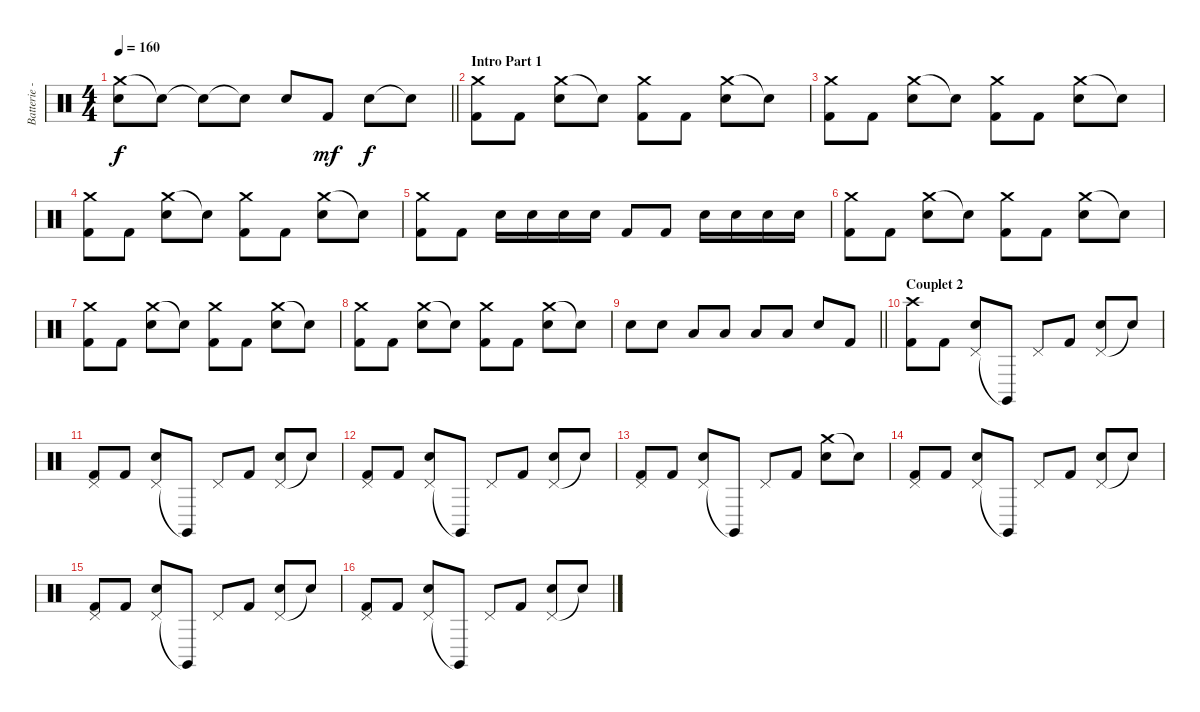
\track ("Batterie - Mikko" "Batterie -") {instrument percussion}
\staff {score}
\articulation defaults
\ts (4 4)
\tempo 160
\clef neutral
\barLineRight lightlight
\ks c
("Crash medium (hit)" "Snare (hit) 2").8{dy f} "Snare (hit)"{t}.8 "Snare (hit)"{t}.8 "Snare (hit)"{t}.8 "Snare (hit) 2".8 "Kick (hit) 2".8{dy mf} "Snare (hit) 2".8{dy f} "Snare (hit)"{t}.8 |
\section ("" "Intro Part 1")
("Crash medium (hit)" "Kick (hit) 2").8 "Kick (hit) 2".8 ("Crash medium (hit)" "Snare (hit) 2").8 "Snare (hit)"{t}.8 ("Crash medium (hit)" "Kick (hit) 2").8 "Kick (hit) 2".8 ("Crash medium (hit)" "Snare (hit) 2").8 "Snare (hit)"{t}.8 |
("Crash medium (hit)" "Kick (hit) 2").8 "Kick (hit) 2".8 ("Crash medium (hit)" "Snare (hit) 2").8 "Snare (hit)"{t}.8 ("Crash medium (hit)" "Kick (hit) 2").8 "Kick (hit) 2".8 ("Crash medium (hit)" "Snare (hit) 2").8 "Snare (hit)"{t}.8 |
("Crash medium (hit)" "Kick (hit) 2").8 "Kick (hit) 2".8 ("Crash medium (hit)" "Snare (hit) 2").8 "Snare (hit)"{t}.8 ("Crash medium (hit)" "Kick (hit) 2").8 "Kick (hit) 2".8 ("Crash medium (hit)" "Snare (hit) 2").8 "Snare (hit)"{t}.8 |
("Crash medium (hit)" "Kick (hit) 2").8 "Kick (hit) 2".8 "Snare (hit) 2".16 "Snare (hit) 2".16 "Snare (hit) 2".16 "Snare (hit) 2".16 "Kick (hit) 2".8 "Kick (hit) 2".8 "Snare (hit) 2".16 "Snare (hit) 2".16 "Snare (hit) 2".16 "Snare (hit) 2".16 |
("Crash medium (hit)" "Kick (hit) 2").8 "Kick (hit) 2".8 ("Crash medium (hit)" "Snare (hit) 2").8 "Snare (hit)"{t}.8 ("Crash medium (hit)" "Kick (hit) 2").8 "Kick (hit) 2".8 ("Crash medium (hit)" "Snare (hit) 2").8 "Snare (hit)"{t}.8 |
("Crash medium (hit)" "Kick (hit) 2").8 "Kick (hit) 2".8 ("Crash medium (hit)" "Snare (hit) 2").8 "Snare (hit)"{t}.8 ("Crash medium (hit)" "Kick (hit) 2").8 "Kick (hit) 2".8 ("Crash medium (hit)" "Snare (hit) 2").8 "Snare (hit)"{t}.8 |
("Crash medium (hit)" "Kick (hit) 2").8 "Kick (hit) 2".8 ("Crash medium (hit)" "Snare (hit) 2").8 "Snare (hit)"{t}.8 ("Crash medium (hit)" "Kick (hit) 2").8 "Kick (hit) 2".8 ("Crash medium (hit)" "Snare (hit) 2").8 "Snare (hit)"{t}.8 |
\barLineRight lightlight "Snare (hit) 2".8 "Snare (hit) 2".8 "Low Tom (hit)".8 "Low Tom (hit)".8 "Low Floor Tom (hit)".8 "Low Floor Tom (hit)".8 "Snare (hit) 2".8 "Kick (hit) 2".8
|
\section ("" "Couplet 2")
("Crash high (hit)" "Kick (hit) 2").8 "Kick (hit) 2".8 ("Pedal Hi-Hat (hit)" "Snare (hit) 2").8 "Claves (hit)"{t}.8 "Pedal Hi-Hat (hit)".8 "Kick (hit) 2".8 ("Pedal Hi-Hat (hit)" "Snare (hit) 2").8 "Snare (hit)"{t}.8 |
("Pedal Hi-Hat (hit)" "Kick (hit) 2").8 "Kick (hit) 2".8 ("Pedal Hi-Hat (hit)" "Snare (hit) 2").8 "Claves (hit)"{t}.8 "Pedal Hi-Hat (hit)".8 "Kick (hit) 2".8 ("Pedal Hi-Hat (hit)" "Snare (hit) 2").8 "Snare (hit)"{t}.8 |
("Pedal Hi-Hat (hit)" "Kick (hit) 2").8 "Kick (hit) 2".8 ("Pedal Hi-Hat (hit)" "Snare (hit) 2").8 "Claves (hit)"{t}.8 "Pedal Hi-Hat (hit)".8 "Kick (hit) 2".8 ("Pedal Hi-Hat (hit)" "Snare (hit) 2").8 "Snare (hit)"{t}.8 |
("Pedal Hi-Hat (hit)" "Kick (hit) 2").8 "Kick (hit) 2".8 ("Pedal Hi-Hat (hit)" "Snare (hit) 2").8 "Claves (hit)"{t}.8 "Pedal Hi-Hat (hit)".8 "Kick (hit) 2".8 ("Crash medium (hit)" "Snare (hit) 2").8 "Snare (hit)"{t}.8 |
("Pedal Hi-Hat (hit)" "Kick (hit) 2").8 "Kick (hit) 2".8 ("Pedal Hi-Hat (hit)" "Snare (hit) 2").8 "Claves (hit)"{t}.8 "Pedal Hi-Hat (hit)".8 "Kick (hit) 2".8 ("Pedal Hi-Hat (hit)" "Snare (hit) 2").8 "Snare (hit)"{t}.8 |
("Pedal Hi-Hat (hit)" "Kick (hit) 2").8 "Kick (hit) 2".8 ("Pedal Hi-Hat (hit)" "Snare (hit) 2").8 "Claves (hit)"{t}.8 "Pedal Hi-Hat (hit)".8 "Kick (hit) 2".8 ("Pedal Hi-Hat (hit)" "Snare (hit) 2").8 "Snare (hit)"{t}.8 |
("Pedal Hi-Hat (hit)" "Kick (hit) 2").8 "Kick (hit) 2".8 ("Pedal Hi-Hat (hit)" "Snare (hit) 2").8 "Claves (hit)"{t}.8 "Pedal Hi-Hat (hit)".8 "Kick (hit) 2".8 ("Pedal Hi-Hat (hit)" "Snare (hit) 2").8 "Snare (hit)"{t}.8
